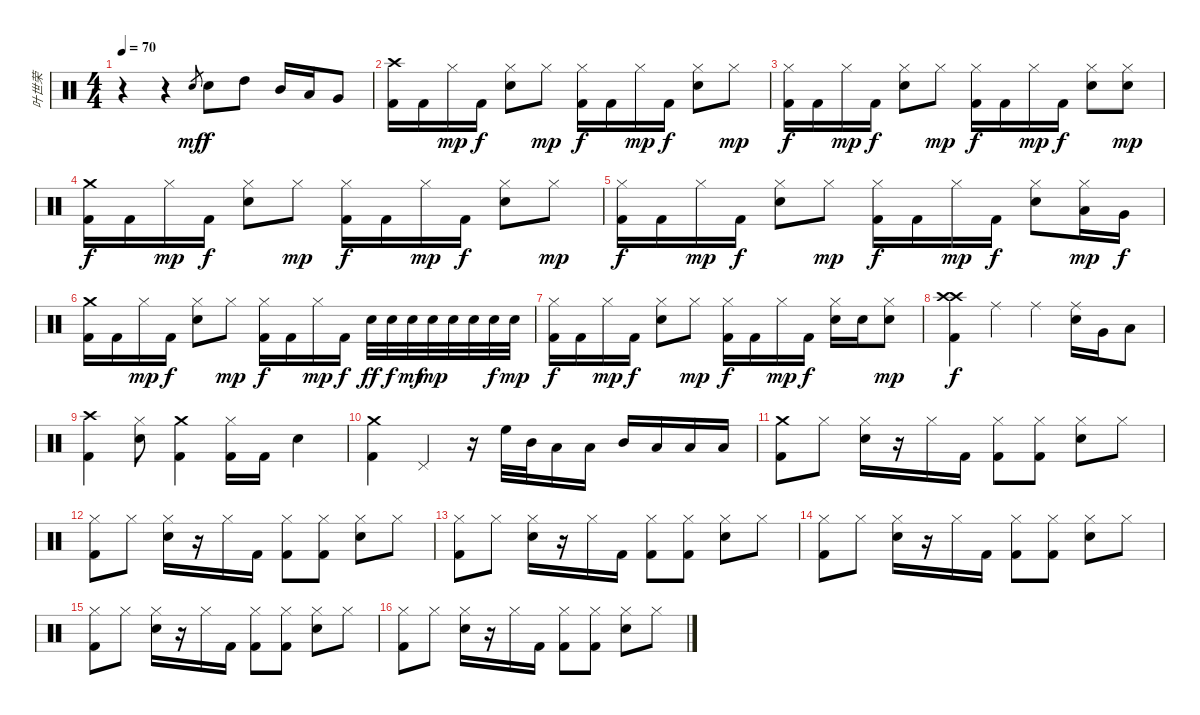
\track ("叶世荣" "叶世荣") {instrument percussion}
\staff {score}
\articulation defaults
\ts (4 4)
\tempo 70
\clef neutral
\ks c
r.4{dy f} r.4 "Electric Snare (hit)".8{gr dy mf} "Electric Snare (hit)".8{dy f} "High Tom (hit)".8 "Mid Tom (hit)".16 "Low Tom (hit)".16 "Very Low Tom (hit)".8 |
("Crash high (hit)" "Kick (hit) 2").16 "Kick (hit) 2".16 "Hi-Hat (closed)".16{dy mp} "Kick (hit) 2".16{dy f} ("Hi-Hat (closed)" "Electric Snare (hit)").8 "Hi-Hat (closed)".8{dy mp} ("Hi-Hat (closed)" "Kick (hit) 2").16{dy f} "Kick (hit) 2".16 "Hi-Hat (closed)".16{dy mp} "Kick (hit) 2".16{dy f} ("Hi-Hat (closed)" "Electric Snare (hit)").8 "Hi-Hat (closed)".8{dy mp} |
("Hi-Hat (closed)" "Kick (hit) 2").16{dy f} "Kick (hit) 2".16 "Hi-Hat (closed)".16{dy mp} "Kick (hit) 2".16{dy f} ("Hi-Hat (closed)" "Electric Snare (hit)").8 "Hi-Hat (closed)".8{dy mp} ("Hi-Hat (closed)" "Kick (hit) 2").16{dy f} "Kick (hit) 2".16 "Hi-Hat (closed)".16{dy mp} "Kick (hit) 2".16{dy f} ("Hi-Hat (closed)" "Electric Snare (hit)").8 ("Hi-Hat (closed)" "Electric Snare (hit)").8{dy mp} |
("Crash medium (hit)" "Kick (hit) 2").16{dy f} "Kick (hit) 2".16 "Hi-Hat (closed)".16{dy mp} "Kick (hit) 2".16{dy f} ("Hi-Hat (closed)" "Electric Snare (hit)").8 "Hi-Hat (closed)".8{dy mp} ("Hi-Hat (closed)" "Kick (hit) 2").16{dy f} "Kick (hit) 2".16 "Hi-Hat (closed)".16{dy mp} "Kick (hit) 2".16{dy f} ("Hi-Hat (closed)" "Electric Snare (hit)").8 "Hi-Hat (closed)".8{dy mp} |
("Hi-Hat (closed)" "Kick (hit) 2").16{dy f} "Kick (hit) 2".16 "Hi-Hat (closed)".16{dy mp} "Kick (hit) 2".16{dy f} ("Hi-Hat (closed)" "Electric Snare (hit)").8 "Hi-Hat (closed)".8{dy mp} ("Hi-Hat (closed)" "Kick (hit) 2").16{dy f} "Kick (hit) 2".16 "Hi-Hat (closed)".16{dy mp} "Kick (hit) 2".16{dy f} ("Hi-Hat (closed)" "Electric Snare (hit)").8 ("Hi-Hat (closed)" "Low Tom (hit)").16{dy mp} "Very Low Tom (hit)".16{dy f} |
("Crash medium (hit)" "Kick (hit) 2").16 "Kick (hit) 2".16 "Hi-Hat (closed)".16{dy mp} "Kick (hit) 2".16{dy f} ("Hi-Hat (closed)" "Electric Snare (hit)").8 "Hi-Hat (closed)".8{dy mp} ("Hi-Hat (closed)" "Kick (hit) 2").16{dy f} "Kick (hit) 2".16 "Hi-Hat (closed)".16{dy mp} "Kick (hit) 2".16{dy f} "Electric Snare (hit)".32{dy ff} "Electric Snare (hit)".32{dy f} "Electric Snare (hit)".32{dy mf} "Electric Snare (hit)".32{dy mp} "Electric Snare (hit)".32 "Electric Snare (hit)".32 "Electric Snare (hit)".32{dy f} "Electric Snare (hit)".32{dy mp} |
("Hi-Hat (closed)" "Kick (hit) 2").16{dy f} "Kick (hit) 2".16 "Hi-Hat (closed)".16{dy mp} "Kick (hit) 2".16{dy f} ("Hi-Hat (closed)" "Electric Snare (hit)").8 "Hi-Hat (closed)".8{dy mp} ("Hi-Hat (closed)" "Kick (hit) 2").16{dy f} "Kick (hit) 2".16 "Hi-Hat (closed)".16{dy mp} "Kick (hit) 2".16{dy f} ("Hi-Hat (closed)" "Electric Snare (hit)").16 "Electric Snare (hit)".16 ("Hi-Hat (closed)" "Electric Snare (hit)").8{dy mp} |
("Crash high (hit)" "Crash high (hit)" "Kick (hit) 2").4{dy f} "Ride (middle)".4 "Ride (middle)".4 ("Ride (middle)" "Electric Snare (hit)").16 "Very Low Tom (hit)".16 "Low Floor Tom (hit)".8 |
("Crash high (hit)" "Kick (hit) 2").4 ("Hi-Hat (closed)" "Electric Snare (hit)").8 ("Crash medium (hit)" "Kick (hit) 2").4 ("Hi-Hat (closed)" "Kick (hit) 2").16 "Kick (hit) 2".16 "Electric Snare (hit)".4 |
("Crash medium (hit)" "Kick (hit) 2").4 "Pedal Hi-Hat (hit)".4 r.16 "High Floor Tom (hit)".32 "Mid Tom (hit)".32 "Low Tom (hit)".16 "Low Floor Tom (hit)".16 "Mid Tom (hit)".16 "Low Tom (hit)".16 "Low Floor Tom (hit)".16 "Low Floor Tom (hit)".16 |
("Crash medium (hit)" "Kick (hit) 2").8 "Hi-Hat (closed)".8 ("Hi-Hat (closed)" "Electric Snare (hit)").16 r.16 "Hi-Hat (closed)".16 "Kick (hit) 2".16 ("Hi-Hat (closed)" "Kick (hit) 2").8 ("Hi-Hat (closed)" "Kick (hit) 2").8 ("Hi-Hat (closed)" "Electric Snare (hit)").8 "Hi-Hat (closed)".8 |
("Hi-Hat (closed)" "Kick (hit) 2").8 "Hi-Hat (closed)".8 ("Hi-Hat (closed)" "Electric Snare (hit)").16 r.16 "Hi-Hat (closed)".16 "Kick (hit) 2".16 ("Hi-Hat (closed)" "Kick (hit) 2").8 ("Hi-Hat (closed)" "Kick (hit) 2").8 ("Hi-Hat (closed)" "Electric Snare (hit)").8 "Hi-Hat (closed)".8 |
("Hi-Hat (closed)" "Kick (hit) 2").8 "Hi-Hat (closed)".8 ("Hi-Hat (closed)" "Electric Snare (hit)").16 r.16 "Hi-Hat (closed)".16 "Kick (hit) 2".16 ("Hi-Hat (closed)" "Kick (hit) 2").8 ("Hi-Hat (closed)" "Kick (hit) 2").8 ("Hi-Hat (closed)" "Electric Snare (hit)").8 "Hi-Hat (closed)".8 |
("Hi-Hat (closed)" "Kick (hit) 2").8 "Hi-Hat (closed)".8 ("Hi-Hat (closed)" "Electric Snare (hit)").16 r.16 "Hi-Hat (closed)".16 "Kick (hit) 2".16 ("Hi-Hat (closed)" "Kick (hit) 2").8 ("Hi-Hat (closed)" "Kick (hit) 2").8 ("Hi-Hat (closed)" "Electric Snare (hit)").8 "Hi-Hat (closed)".8 |
("Hi-Hat (closed)" "Kick (hit) 2").8 "Hi-Hat (closed)".8 ("Hi-Hat (closed)" "Electric Snare (hit)").16 r.16 "Hi-Hat (closed)".16 "Kick (hit) 2".16 ("Hi-Hat (closed)" "Kick (hit) 2").8 ("Hi-Hat (closed)" "Kick (hit) 2").8 ("Hi-Hat (closed)" "Electric Snare (hit)").8 "Hi-Hat (closed)".8 |
("Hi-Hat (closed)" "Kick (hit) 2").8 "Hi-Hat (closed)".8 ("Hi-Hat (closed)" "Electric Snare (hit)").16 r.16 "Hi-Hat (closed)".16 "Kick (hit) 2".16 ("Hi-Hat (closed)" "Kick (hit) 2").8 ("Hi-Hat (closed)" "Kick (hit) 2").8 ("Hi-Hat (closed)" "Electric Snare (hit)").8 "Hi-Hat (closed)".8
